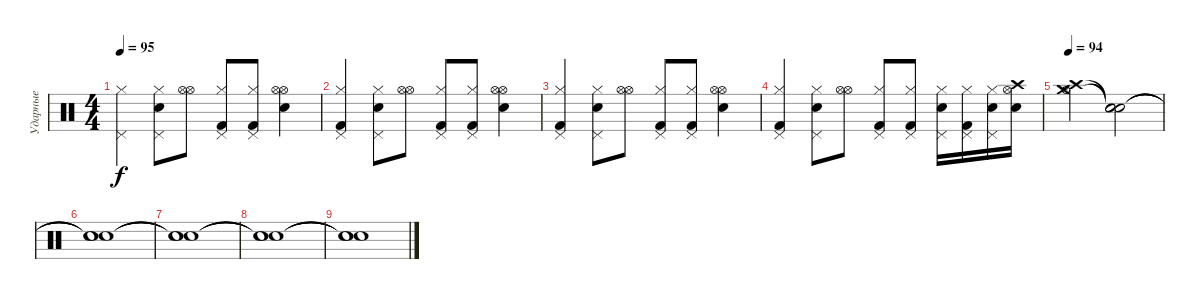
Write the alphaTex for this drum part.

\track ("Ударные" "Ударные") {instrument percussion}
\staff {score}
\articulation defaults
\ts (4 4)
\tempo 95
\clef neutral
\ks c
("Pedal Hi-Hat (hit)" "Hi-Hat (closed)").4{dy f} ("Pedal Hi-Hat (hit)" "Hi-Hat (closed)" "Electric Snare (hit)").8 ("Hi-Hat (open)" "Hi-Hat (open)").8 ("Pedal Hi-Hat (hit)" "Hi-Hat (closed)" "Kick (hit) 2").8 ("Pedal Hi-Hat (hit)" "Hi-Hat (closed)" "Kick (hit) 2").8 ("Hi-Hat (open)" "Hi-Hat (open)" "Electric Snare (hit)").4 |
("Pedal Hi-Hat (hit)" "Hi-Hat (closed)" "Kick (hit) 2").4 ("Pedal Hi-Hat (hit)" "Hi-Hat (closed)" "Electric Snare (hit)").8 ("Hi-Hat (open)" "Hi-Hat (open)").8 ("Pedal Hi-Hat (hit)" "Hi-Hat (closed)" "Kick (hit) 2").8 ("Pedal Hi-Hat (hit)" "Hi-Hat (closed)" "Kick (hit) 2").8 ("Hi-Hat (open)" "Hi-Hat (open)" "Electric Snare (hit)").4 |
("Pedal Hi-Hat (hit)" "Hi-Hat (closed)" "Kick (hit) 2").4 ("Pedal Hi-Hat (hit)" "Hi-Hat (closed)" "Electric Snare (hit)").8 ("Hi-Hat (open)" "Hi-Hat (open)").8 ("Pedal Hi-Hat (hit)" "Hi-Hat (closed)" "Kick (hit) 2").8 ("Pedal Hi-Hat (hit)" "Hi-Hat (closed)" "Kick (hit) 2").8 ("Hi-Hat (open)" "Hi-Hat (open)" "Electric Snare (hit)").4 |
("Pedal Hi-Hat (hit)" "Hi-Hat (closed)" "Kick (hit) 2").4 ("Pedal Hi-Hat (hit)" "Hi-Hat (closed)" "Electric Snare (hit)").8 ("Hi-Hat (open)" "Hi-Hat (open)").8 ("Pedal Hi-Hat (hit)" "Hi-Hat (closed)" "Kick (hit) 2").8 ("Pedal Hi-Hat (hit)" "Hi-Hat (closed)" "Kick (hit) 2").8 ("Pedal Hi-Hat (hit)" "Hi-Hat (closed)" "Electric Snare (hit)").16 ("Pedal Hi-Hat (hit)" "Hi-Hat (closed)" "Kick (hit) 2").16 ("Pedal Hi-Hat (hit)" "Hi-Hat (closed)" "Electric Snare (hit)").16 ("Crash high (hit)" "Hi-Hat (open)" "Electric Snare (hit)").16 |
\tempo 94
("Crash high (hit)" "Crash medium (hit)" "Hi-Hat (open)").2{volume 16} ("Snare (hit)"{t} "Snare (hit)"{t} "Snare (hit)"{t}).2{volume 16} |
("Snare (hit)"{t} "Snare (hit)"{t} "Snare (hit)"{t}).1{volume 14} |
("Snare (hit)"{t} "Snare (hit)"{t} "Snare (hit)"{t}).1{volume 12} |
("Snare (hit)"{t} "Snare (hit)"{t} "Snare (hit)"{t}).1{volume 10} |
("Snare (hit)"{t} "Snare (hit)"{t} "Snare (hit)"{t}).1{volume 8}
